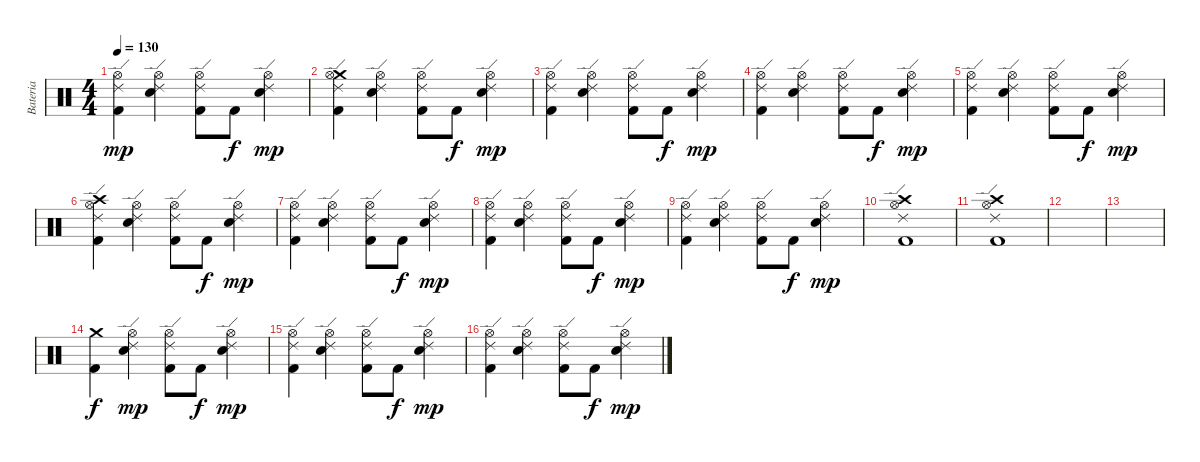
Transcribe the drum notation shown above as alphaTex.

\track ("Bateria" "Bateria") {instrument percussion}
\staff {score}
\articulation defaults
\ts (4 4)
\tempo 130
\clef neutral
\ks c
("Hi-Hat (open)" "Ride (edge) 2" "Kick (hit) 2").4{dy mp} ("Electric Snare (hit)" "Hi-Hat (open)" "Ride (edge) 2").4 ("Hi-Hat (open)" "Ride (edge) 2" "Kick (hit) 2").8 "Kick (hit) 2".8{dy f} ("Electric Snare (hit)" "Hi-Hat (open)" "Ride (edge) 2").4{dy mp} |
("Crash medium (hit)" "Hi-Hat (open)" "Ride (edge) 2" "Kick (hit) 2").4 ("Electric Snare (hit)" "Hi-Hat (open)" "Ride (edge) 2").4 ("Hi-Hat (open)" "Ride (edge) 2" "Kick (hit) 2").8 "Kick (hit) 2".8{dy f} ("Electric Snare (hit)" "Hi-Hat (open)" "Ride (edge) 2").4{dy mp} |
("Hi-Hat (open)" "Ride (edge) 2" "Kick (hit) 2").4 ("Electric Snare (hit)" "Hi-Hat (open)" "Ride (edge) 2").4 ("Hi-Hat (open)" "Ride (edge) 2" "Kick (hit) 2").8 "Kick (hit) 2".8{dy f} ("Electric Snare (hit)" "Hi-Hat (open)" "Ride (edge) 2").4{dy mp} |
("Hi-Hat (open)" "Ride (edge) 2" "Kick (hit) 2").4 ("Electric Snare (hit)" "Hi-Hat (open)" "Ride (edge) 2").4 ("Hi-Hat (open)" "Ride (edge) 2" "Kick (hit) 2").8 "Kick (hit) 2".8{dy f} ("Electric Snare (hit)" "Hi-Hat (open)" "Ride (edge) 2").4{dy mp} |
("Hi-Hat (open)" "Ride (edge) 2" "Kick (hit) 2").4 ("Electric Snare (hit)" "Hi-Hat (open)" "Ride (edge) 2").4 ("Hi-Hat (open)" "Ride (edge) 2" "Kick (hit) 2").8 "Kick (hit) 2".8{dy f} ("Electric Snare (hit)" "Hi-Hat (open)" "Ride (edge) 2").4{dy mp} |
("Crash high (hit)" "Hi-Hat (open)" "Ride (edge) 2" "Kick (hit) 2").4 ("Electric Snare (hit)" "Hi-Hat (open)" "Ride (edge) 2").4 ("Hi-Hat (open)" "Ride (edge) 2" "Kick (hit) 2").8 "Kick (hit) 2".8{dy f} ("Electric Snare (hit)" "Hi-Hat (open)" "Ride (edge) 2").4{dy mp} |
("Hi-Hat (open)" "Ride (edge) 2" "Kick (hit) 2").4 ("Electric Snare (hit)" "Hi-Hat (open)" "Ride (edge) 2").4 ("Hi-Hat (open)" "Ride (edge) 2" "Kick (hit) 2").8 "Kick (hit) 2".8{dy f} ("Electric Snare (hit)" "Hi-Hat (open)" "Ride (edge) 2").4{dy mp} |
("Hi-Hat (open)" "Ride (edge) 2" "Kick (hit) 2").4 ("Electric Snare (hit)" "Hi-Hat (open)" "Ride (edge) 2").4 ("Hi-Hat (open)" "Ride (edge) 2" "Kick (hit) 2").8 "Kick (hit) 2".8{dy f} ("Electric Snare (hit)" "Hi-Hat (open)" "Ride (edge) 2").4{dy mp} |
("Hi-Hat (open)" "Ride (edge) 2" "Kick (hit) 2").4 ("Electric Snare (hit)" "Hi-Hat (open)" "Ride (edge) 2").4 ("Hi-Hat (open)" "Ride (edge) 2" "Kick (hit) 2").8 "Kick (hit) 2".8{dy f} ("Electric Snare (hit)" "Hi-Hat (open)" "Ride (edge) 2").4{dy mp} |
("Crash high (hit)" "Hi-Hat (open)" "Ride (edge) 2" "Kick (hit) 2").1 |
("Crash high (hit)" "Hi-Hat (open)" "Ride (edge) 2" "Kick (hit) 2").1 |
|
|
("Crash medium (hit)" "Kick (hit) 2").4{dy f} ("Electric Snare (hit)" "Hi-Hat (open)" "Ride (edge) 2").4{dy mp} ("Hi-Hat (open)" "Ride (edge) 2" "Kick (hit) 2").8 "Kick (hit) 2".8{dy f} ("Electric Snare (hit)" "Hi-Hat (open)" "Ride (edge) 2").4{dy mp} |
("Hi-Hat (open)" "Ride (edge) 2" "Kick (hit) 2").4 ("Electric Snare (hit)" "Hi-Hat (open)" "Ride (edge) 2").4 ("Hi-Hat (open)" "Ride (edge) 2" "Kick (hit) 2").8 "Kick (hit) 2".8{dy f} ("Electric Snare (hit)" "Hi-Hat (open)" "Ride (edge) 2").4{dy mp} |
("Hi-Hat (open)" "Ride (edge) 2" "Kick (hit) 2").4 ("Electric Snare (hit)" "Hi-Hat (open)" "Ride (edge) 2").4 ("Hi-Hat (open)" "Ride (edge) 2" "Kick (hit) 2").8 "Kick (hit) 2".8{dy f} ("Electric Snare (hit)" "Hi-Hat (open)" "Ride (edge) 2").4{dy mp}
